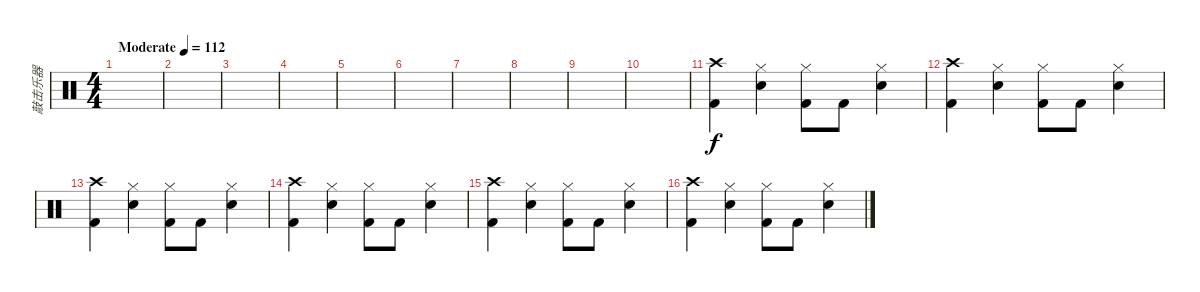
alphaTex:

\track ("敲击乐器" "敲击乐器") {instrument percussion}
\staff {score}
\articulation defaults
\ts (4 4)
\tempo (112 "Moderate")
\clef neutral
\ks c
|
|
|
|
|
|
|
|
|
|
("Crash high (hit)" "Kick (hit) 2").4 ("Hi-Hat (closed)" "Snare (hit) 2").4 ("Hi-Hat (closed)" "Kick (hit) 2").8 "Kick (hit) 2".8 ("Hi-Hat (closed)" "Snare (hit) 2").4 |
("Crash high (hit)" "Kick (hit) 2").4 ("Hi-Hat (closed)" "Snare (hit) 2").4 ("Hi-Hat (closed)" "Kick (hit) 2").8 "Kick (hit) 2".8 ("Hi-Hat (closed)" "Snare (hit) 2").4 |
("Crash high (hit)" "Kick (hit) 2").4 ("Hi-Hat (closed)" "Snare (hit) 2").4 ("Hi-Hat (closed)" "Kick (hit) 2").8 "Kick (hit) 2".8 ("Hi-Hat (closed)" "Snare (hit) 2").4 |
("Crash high (hit)" "Kick (hit) 2").4 ("Hi-Hat (closed)" "Snare (hit) 2").4 ("Hi-Hat (closed)" "Kick (hit) 2").8 "Kick (hit) 2".8 ("Hi-Hat (closed)" "Snare (hit) 2").4 |
("Crash high (hit)" "Kick (hit) 2").4 ("Hi-Hat (closed)" "Snare (hit) 2").4 ("Hi-Hat (closed)" "Kick (hit) 2").8 "Kick (hit) 2".8 ("Hi-Hat (closed)" "Snare (hit) 2").4 |
("Crash high (hit)" "Kick (hit) 2").4 ("Hi-Hat (closed)" "Snare (hit) 2").4 ("Hi-Hat (closed)" "Kick (hit) 2").8 "Kick (hit) 2".8 ("Hi-Hat (closed)" "Snare (hit) 2").4
